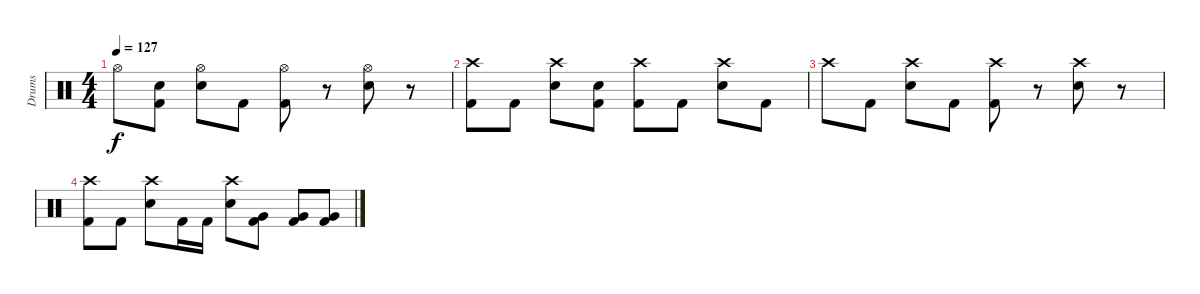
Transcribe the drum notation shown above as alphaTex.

\track ("Drums" "Drums") {instrument percussion}
\staff {score}
\articulation defaults
\ts (4 4)
\tempo 127
\clef neutral
\ks c "Hi-Hat (open)".8{dy f}
("Snare (hit)" "Kick (hit) 2").8 ("Hi-Hat (open)" "Snare (hit) 2").8 "Kick (hit) 2".8 ("Hi-Hat (open)" "Kick (hit) 2").8 r.8 ("Hi-Hat (open)" "Snare (hit) 2").8 r.8 |
("Crash high (hit)" "Kick (hit) 2").8 "Kick (hit) 2".8 ("Crash high (hit)" "Snare (hit) 2").8 ("Snare (hit)" "Kick (hit) 2").8 ("Crash high (hit)" "Kick (hit) 2").8 "Kick (hit) 2".8 ("Crash high (hit)" "Snare (hit) 2").8 "Kick (hit) 2".8 |
"Crash high (hit)".8 "Kick (hit) 2".8 ("Crash high (hit)" "Snare (hit) 2").8 "Kick (hit) 2".8 ("Crash high (hit)" "Kick (hit) 2").8 r.8 ("Crash high (hit)" "Snare (hit) 2").8 r.8 |
("Crash high (hit)" "Kick (hit) 2").8 "Kick (hit) 2".8 ("Crash high (hit)" "Snare (hit) 2").8 "Kick (hit) 2".16 "Kick (hit) 2".16 ("Crash high (hit)" "Snare (hit) 2").8 ("Kick (hit) 2" "Very Low Tom (hit)").8 ("Kick (hit) 2" "Very Low Tom (hit)").8 ("Kick (hit) 2" "Very Low Tom (hit)").8
